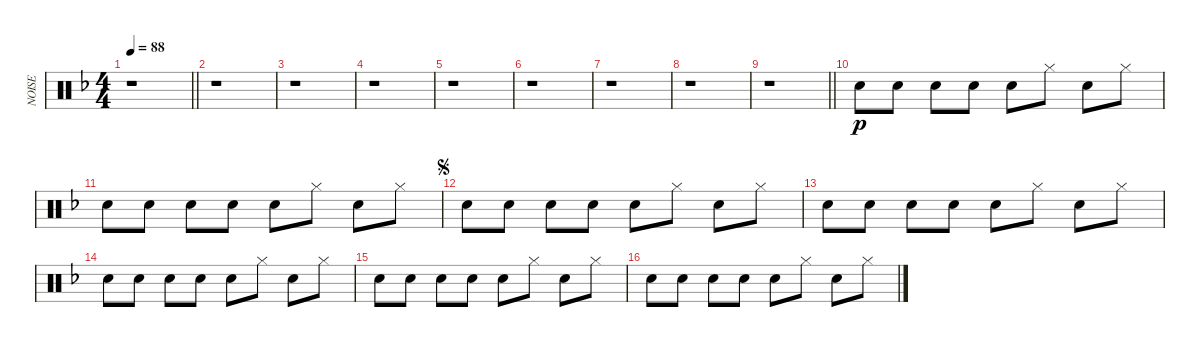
\track ("NOISE" "NOISE") {instrument percussion}
\staff {score}
\articulation defaults
\ts (4 4)
\tempo 88
\clef neutral
\barLineRight lightlight
\ks dminor
r.1{dy p} |
\section ("" "")
r.1 |
r.1 |
r.1 |
r.1 |
r.1 |
r.1 |
r.1 |
\barLineRight lightlight
r.1 |
\section ("" "")
"Snare (hit) 2".8 "Snare (hit) 2".8 "Snare (hit) 2".8 "Snare (hit) 2".8 "Snare (hit) 2".8 "Hi-Hat (closed)".8 "Snare (hit) 2".8 "Hi-Hat (closed)".8 |
"Snare (hit) 2".8 "Snare (hit) 2".8 "Snare (hit) 2".8 "Snare (hit) 2".8 "Snare (hit) 2".8 "Hi-Hat (closed)".8 "Snare (hit) 2".8 "Hi-Hat (closed)".8 |
\jump segno "Snare (hit) 2".8 "Snare (hit) 2".8 "Snare (hit) 2".8 "Snare (hit) 2".8 "Snare (hit) 2".8 "Hi-Hat (closed)".8 "Snare (hit) 2".8 "Hi-Hat (closed)".8
|
"Snare (hit) 2".8 "Snare (hit) 2".8 "Snare (hit) 2".8 "Snare (hit) 2".8 "Snare (hit) 2".8 "Hi-Hat (closed)".8 "Snare (hit) 2".8 "Hi-Hat (closed)".8 |
"Snare (hit) 2".8 "Snare (hit) 2".8 "Snare (hit) 2".8 "Snare (hit) 2".8 "Snare (hit) 2".8 "Hi-Hat (closed)".8 "Snare (hit) 2".8 "Hi-Hat (closed)".8 |
"Snare (hit) 2".8 "Snare (hit) 2".8 "Snare (hit) 2".8 "Snare (hit) 2".8 "Snare (hit) 2".8 "Hi-Hat (closed)".8 "Snare (hit) 2".8 "Hi-Hat (closed)".8 |
"Snare (hit) 2".8 "Snare (hit) 2".8 "Snare (hit) 2".8 "Snare (hit) 2".8 "Snare (hit) 2".8 "Hi-Hat (closed)".8 "Snare (hit) 2".8 "Hi-Hat (closed)".8
